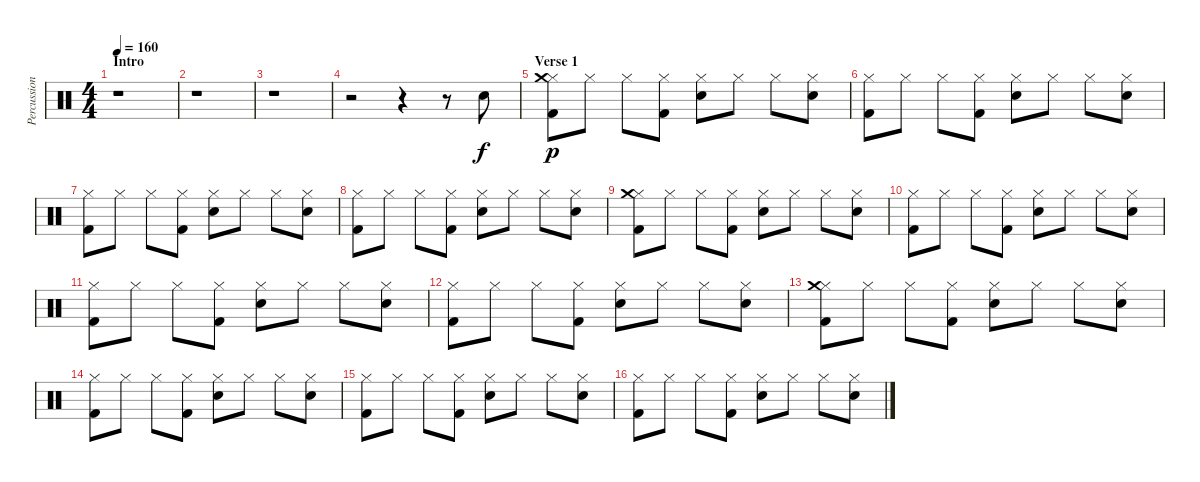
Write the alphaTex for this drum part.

\track ("Percussions" "Percussion") {instrument percussion}
\staff {score}
\articulation defaults
\ts (4 4)
\section ("" "Intro")
\tempo 160
\clef neutral
\ks c
r.1{dy f} |
r.1 |
r.1 |
r.2 r.4 r.8 "Electric Snare (hit)".8 |
\section ("" "Verse 1")
("Hi-Hat (closed)" "Kick (hit) 2" "Crash medium (hit)").8{dy p} "Hi-Hat (closed)".8 "Hi-Hat (closed)".8 ("Hi-Hat (closed)" "Kick (hit) 2").8 ("Hi-Hat (closed)" "Electric Snare (hit)").8 "Hi-Hat (closed)".8 "Hi-Hat (closed)".8 ("Hi-Hat (closed)" "Electric Snare (hit)").8 |
("Hi-Hat (closed)" "Kick (hit) 2").8 "Hi-Hat (closed)".8 "Hi-Hat (closed)".8 ("Hi-Hat (closed)" "Kick (hit) 2").8 ("Hi-Hat (closed)" "Electric Snare (hit)").8 "Hi-Hat (closed)".8 "Hi-Hat (closed)".8 ("Hi-Hat (closed)" "Electric Snare (hit)").8 |
("Hi-Hat (closed)" "Kick (hit) 2").8 "Hi-Hat (closed)".8 "Hi-Hat (closed)".8 ("Hi-Hat (closed)" "Kick (hit) 2").8 ("Hi-Hat (closed)" "Electric Snare (hit)").8 "Hi-Hat (closed)".8 "Hi-Hat (closed)".8 ("Hi-Hat (closed)" "Electric Snare (hit)").8 |
("Hi-Hat (closed)" "Kick (hit) 2").8 "Hi-Hat (closed)".8 "Hi-Hat (closed)".8 ("Hi-Hat (closed)" "Kick (hit) 2").8 ("Hi-Hat (closed)" "Electric Snare (hit)").8 "Hi-Hat (closed)".8 "Hi-Hat (closed)".8 ("Hi-Hat (closed)" "Electric Snare (hit)").8 |
("Hi-Hat (closed)" "Kick (hit) 2" "Crash medium (hit)").8 "Hi-Hat (closed)".8 "Hi-Hat (closed)".8 ("Hi-Hat (closed)" "Kick (hit) 2").8 ("Hi-Hat (closed)" "Electric Snare (hit)").8 "Hi-Hat (closed)".8 "Hi-Hat (closed)".8 ("Hi-Hat (closed)" "Electric Snare (hit)").8 |
("Hi-Hat (closed)" "Kick (hit) 2").8 "Hi-Hat (closed)".8 "Hi-Hat (closed)".8 ("Hi-Hat (closed)" "Kick (hit) 2").8 ("Hi-Hat (closed)" "Electric Snare (hit)").8 "Hi-Hat (closed)".8 "Hi-Hat (closed)".8 ("Hi-Hat (closed)" "Electric Snare (hit)").8 |
("Hi-Hat (closed)" "Kick (hit) 2").8 "Hi-Hat (closed)".8 "Hi-Hat (closed)".8 ("Hi-Hat (closed)" "Kick (hit) 2").8 ("Hi-Hat (closed)" "Electric Snare (hit)").8 "Hi-Hat (closed)".8 "Hi-Hat (closed)".8 ("Hi-Hat (closed)" "Electric Snare (hit)").8 |
("Hi-Hat (closed)" "Kick (hit) 2").8 "Hi-Hat (closed)".8 "Hi-Hat (closed)".8 ("Hi-Hat (closed)" "Kick (hit) 2").8 ("Hi-Hat (closed)" "Electric Snare (hit)").8 "Hi-Hat (closed)".8 "Hi-Hat (closed)".8 ("Hi-Hat (closed)" "Electric Snare (hit)").8 |
("Hi-Hat (closed)" "Kick (hit) 2" "Crash medium (hit)").8 "Hi-Hat (closed)".8 "Hi-Hat (closed)".8 ("Hi-Hat (closed)" "Kick (hit) 2").8 ("Hi-Hat (closed)" "Electric Snare (hit)").8 "Hi-Hat (closed)".8 "Hi-Hat (closed)".8 ("Hi-Hat (closed)" "Electric Snare (hit)").8 |
("Hi-Hat (closed)" "Kick (hit) 2").8 "Hi-Hat (closed)".8 "Hi-Hat (closed)".8 ("Hi-Hat (closed)" "Kick (hit) 2").8 ("Hi-Hat (closed)" "Electric Snare (hit)").8 "Hi-Hat (closed)".8 "Hi-Hat (closed)".8 ("Hi-Hat (closed)" "Electric Snare (hit)").8 |
("Hi-Hat (closed)" "Kick (hit) 2").8 "Hi-Hat (closed)".8 "Hi-Hat (closed)".8 ("Hi-Hat (closed)" "Kick (hit) 2").8 ("Hi-Hat (closed)" "Electric Snare (hit)").8 "Hi-Hat (closed)".8 "Hi-Hat (closed)".8 ("Hi-Hat (closed)" "Electric Snare (hit)").8 |
("Hi-Hat (closed)" "Kick (hit) 2").8 "Hi-Hat (closed)".8 "Hi-Hat (closed)".8 ("Hi-Hat (closed)" "Kick (hit) 2").8 ("Hi-Hat (closed)" "Electric Snare (hit)").8 "Hi-Hat (closed)".8 "Hi-Hat (closed)".8 ("Hi-Hat (closed)" "Electric Snare (hit)").8
